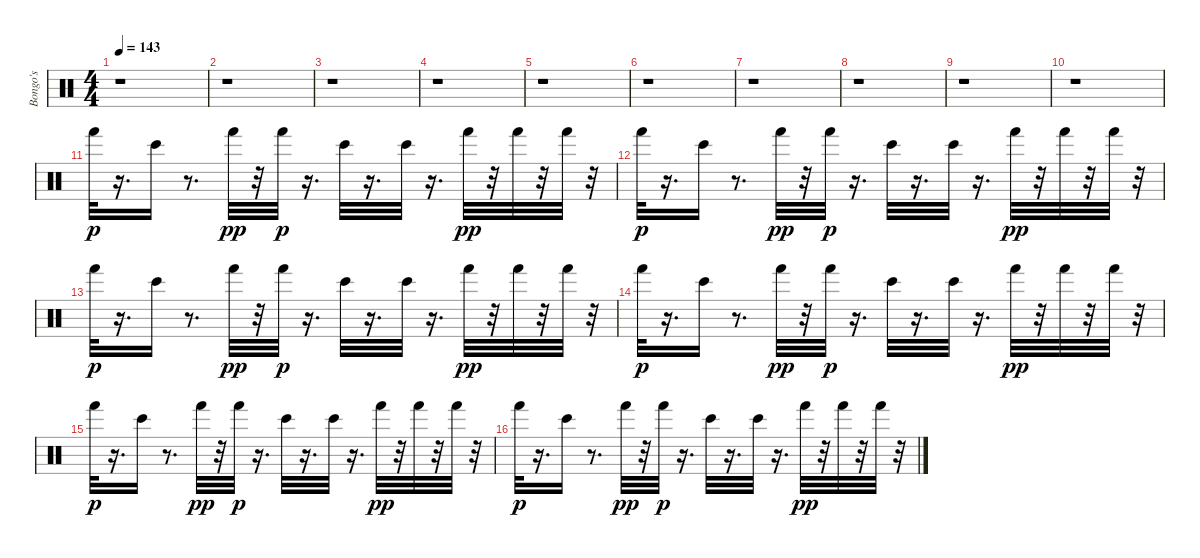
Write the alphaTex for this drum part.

\track ("Bongo's  " "Bongo's  ") {instrument percussion}
\staff {score}
\articulation defaults
\ts (4 4)
\tempo 143
\clef neutral
\ks c
r.1{dy p} |
r.1 |
r.1 |
r.1 |
r.1 |
r.1 |
r.1 |
r.1 |
r.1 |
r.1 |
"Hand (hit)".32 r.16{d} "Bongo High (hit)".16 r.8{d} "Hand (hit)".32{dy pp} r.32 "Hand (hit)".32{dy p} r.16{d} "Bongo High (hit)".32 r.16{d} "Bongo High (hit)".32 r.16{d} "Hand (hit)".32{dy pp} r.32 "Hand (hit)".32 r.32 "Hand (hit)".32 r.32 |
"Hand (hit)".32{dy p} r.16{d} "Bongo High (hit)".16 r.8{d} "Hand (hit)".32{dy pp} r.32 "Hand (hit)".32{dy p} r.16{d} "Bongo High (hit)".32 r.16{d} "Bongo High (hit)".32 r.16{d} "Hand (hit)".32{dy pp} r.32 "Hand (hit)".32 r.32 "Hand (hit)".32 r.32 |
"Hand (hit)".32{dy p} r.16{d} "Bongo High (hit)".16 r.8{d} "Hand (hit)".32{dy pp} r.32 "Hand (hit)".32{dy p} r.16{d} "Bongo High (hit)".32 r.16{d} "Bongo High (hit)".32 r.16{d} "Hand (hit)".32{dy pp} r.32 "Hand (hit)".32 r.32 "Hand (hit)".32 r.32 |
"Hand (hit)".32{dy p} r.16{d} "Bongo High (hit)".16 r.8{d} "Hand (hit)".32{dy pp} r.32 "Hand (hit)".32{dy p} r.16{d} "Bongo High (hit)".32 r.16{d} "Bongo High (hit)".32 r.16{d} "Hand (hit)".32{dy pp} r.32 "Hand (hit)".32 r.32 "Hand (hit)".32 r.32 |
"Hand (hit)".32{dy p} r.16{d} "Bongo High (hit)".16 r.8{d} "Hand (hit)".32{dy pp} r.32 "Hand (hit)".32{dy p} r.16{d} "Bongo High (hit)".32 r.16{d} "Bongo High (hit)".32 r.16{d} "Hand (hit)".32{dy pp} r.32 "Hand (hit)".32 r.32 "Hand (hit)".32 r.32 |
"Hand (hit)".32{dy p} r.16{d} "Bongo High (hit)".16 r.8{d} "Hand (hit)".32{dy pp} r.32 "Hand (hit)".32{dy p} r.16{d} "Bongo High (hit)".32 r.16{d} "Bongo High (hit)".32 r.16{d} "Hand (hit)".32{dy pp} r.32 "Hand (hit)".32 r.32 "Hand (hit)".32 r.32
